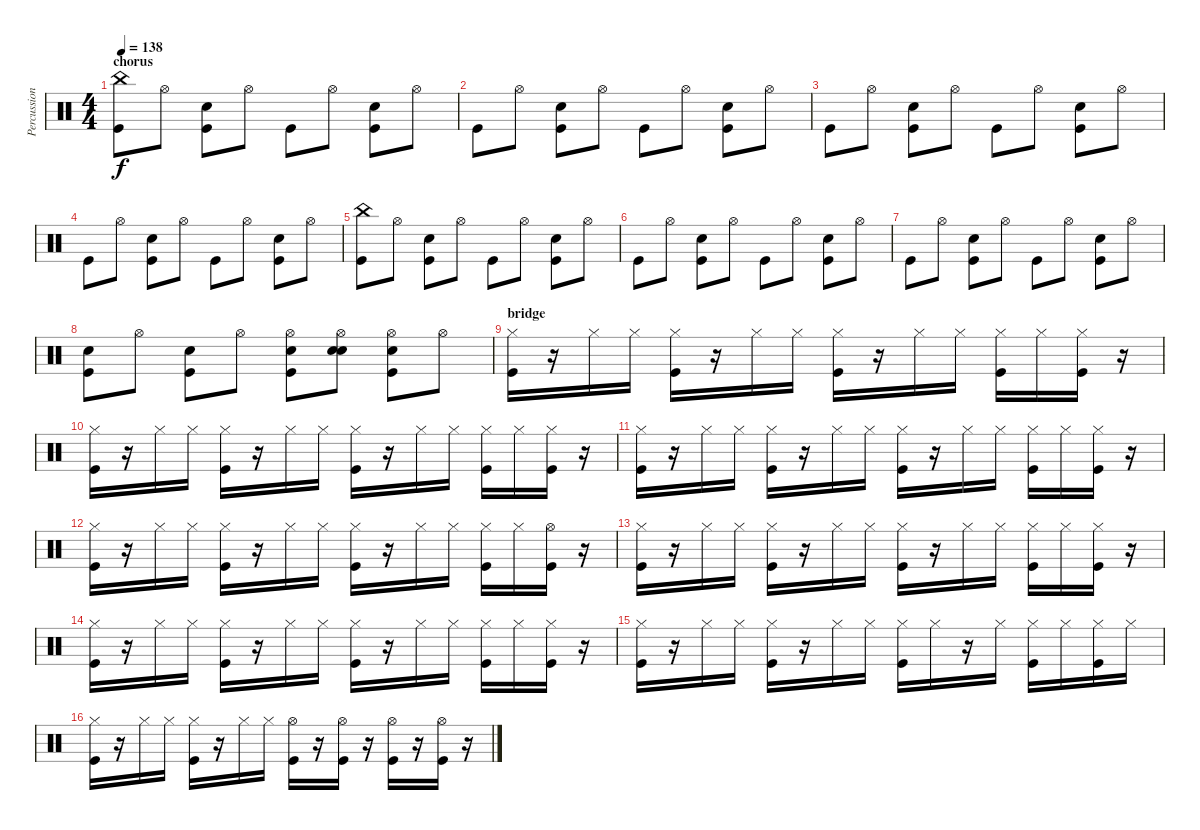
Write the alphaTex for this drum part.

\track ("Percussion" "Percussion") {instrument percussion}
\staff {score}
\articulation defaults
\ts (4 4)
\section ("" "chorus")
\tempo 138
\clef neutral
\ks c
("China (hit)" "Kick (hit)").8{dy f} "Hi-Hat (open)".8 ("Snare (hit) 2" "Kick (hit)").8 "Hi-Hat (open)".8 "Kick (hit)".8 "Hi-Hat (open)".8 ("Snare (hit) 2" "Kick (hit)").8 "Hi-Hat (open)".8 |
"Kick (hit)".8 "Hi-Hat (open)".8 ("Snare (hit) 2" "Kick (hit)").8 "Hi-Hat (open)".8 "Kick (hit)".8 "Hi-Hat (open)".8 ("Snare (hit) 2" "Kick (hit)").8 "Hi-Hat (open)".8 |
"Kick (hit)".8 "Hi-Hat (open)".8 ("Snare (hit) 2" "Kick (hit)").8 "Hi-Hat (open)".8 "Kick (hit)".8 "Hi-Hat (open)".8 ("Snare (hit) 2" "Kick (hit)").8 "Hi-Hat (open)".8 |
"Kick (hit)".8 "Hi-Hat (open)".8 ("Snare (hit) 2" "Kick (hit)").8 "Hi-Hat (open)".8 "Kick (hit)".8 "Hi-Hat (open)".8 ("Snare (hit) 2" "Kick (hit)").8 "Hi-Hat (open)".8 |
("China (hit)" "Kick (hit)").8 "Hi-Hat (open)".8 ("Snare (hit) 2" "Kick (hit)").8 "Hi-Hat (open)".8 "Kick (hit)".8 "Hi-Hat (open)".8 ("Snare (hit) 2" "Kick (hit)").8 "Hi-Hat (open)".8 |
"Kick (hit)".8 "Hi-Hat (open)".8 ("Snare (hit) 2" "Kick (hit)").8 "Hi-Hat (open)".8 "Kick (hit)".8 "Hi-Hat (open)".8 ("Snare (hit) 2" "Kick (hit)").8 "Hi-Hat (open)".8 |
"Kick (hit)".8 "Hi-Hat (open)".8 ("Snare (hit) 2" "Kick (hit)").8 "Hi-Hat (open)".8 "Kick (hit)".8 "Hi-Hat (open)".8 ("Snare (hit) 2" "Kick (hit)").8 "Hi-Hat (open)".8 |
("Snare (hit) 2" "Kick (hit)").8 "Hi-Hat (open)".8 ("Snare (hit) 2" "Kick (hit)").8 "Hi-Hat (open)".8 ("Hi-Hat (open)" "Snare (hit) 2" "Kick (hit)").8 ("Hi-Hat (open)" "Snare (hit) 2" "Snare (hit) 2").8 ("Hi-Hat (open)" "Snare (hit) 2" "Kick (hit)").8 "Hi-Hat (open)".8 |
\section ("" "bridge")
("Hi-Hat (closed)" "Kick (hit)").16 r.16 "Hi-Hat (closed)".16 "Hi-Hat (closed)".16 ("Hi-Hat (closed)" "Kick (hit)").16 r.16 "Hi-Hat (closed)".16 "Hi-Hat (closed)".16 ("Hi-Hat (closed)" "Kick (hit)").16 r.16 "Hi-Hat (closed)".16 "Hi-Hat (closed)".16 ("Hi-Hat (closed)" "Kick (hit)").16 "Hi-Hat (closed)".16 ("Hi-Hat (closed)" "Kick (hit)").16 r.16 |
("Hi-Hat (closed)" "Kick (hit)").16 r.16 "Hi-Hat (closed)".16 "Hi-Hat (closed)".16 ("Hi-Hat (closed)" "Kick (hit)").16 r.16 "Hi-Hat (closed)".16 "Hi-Hat (closed)".16 ("Hi-Hat (closed)" "Kick (hit)").16 r.16 "Hi-Hat (closed)".16 "Hi-Hat (closed)".16 ("Hi-Hat (closed)" "Kick (hit)").16 "Hi-Hat (closed)".16 ("Hi-Hat (closed)" "Kick (hit)").16 r.16 |
("Hi-Hat (closed)" "Kick (hit)").16 r.16 "Hi-Hat (closed)".16 "Hi-Hat (closed)".16 ("Hi-Hat (closed)" "Kick (hit)").16 r.16 "Hi-Hat (closed)".16 "Hi-Hat (closed)".16 ("Hi-Hat (closed)" "Kick (hit)").16 r.16 "Hi-Hat (closed)".16 "Hi-Hat (closed)".16 ("Hi-Hat (closed)" "Kick (hit)").16 "Hi-Hat (closed)".16 ("Hi-Hat (closed)" "Kick (hit)").16 r.16 |
("Hi-Hat (closed)" "Kick (hit)").16 r.16 "Hi-Hat (closed)".16 "Hi-Hat (closed)".16 ("Hi-Hat (closed)" "Kick (hit)").16 r.16 "Hi-Hat (closed)".16 "Hi-Hat (closed)".16 ("Hi-Hat (closed)" "Kick (hit)").16 r.16 "Hi-Hat (closed)".16 "Hi-Hat (closed)".16 ("Hi-Hat (closed)" "Kick (hit)").16 "Hi-Hat (closed)".16 ("Hi-Hat (open)" "Kick (hit)").16 r.16 |
("Hi-Hat (closed)" "Kick (hit)").16 r.16 "Hi-Hat (closed)".16 "Hi-Hat (closed)".16 ("Hi-Hat (closed)" "Kick (hit)").16 r.16 "Hi-Hat (closed)".16 "Hi-Hat (closed)".16 ("Hi-Hat (closed)" "Kick (hit)").16 r.16 "Hi-Hat (closed)".16 "Hi-Hat (closed)".16 ("Hi-Hat (closed)" "Kick (hit)").16 "Hi-Hat (closed)".16 ("Hi-Hat (closed)" "Kick (hit)").16 r.16 |
("Hi-Hat (closed)" "Kick (hit)").16 r.16 "Hi-Hat (closed)".16 "Hi-Hat (closed)".16 ("Hi-Hat (closed)" "Kick (hit)").16 r.16 "Hi-Hat (closed)".16 "Hi-Hat (closed)".16 ("Hi-Hat (closed)" "Kick (hit)").16 r.16 "Hi-Hat (closed)".16 "Hi-Hat (closed)".16 ("Hi-Hat (closed)" "Kick (hit)").16 "Hi-Hat (closed)".16 ("Hi-Hat (closed)" "Kick (hit)").16 r.16 |
("Hi-Hat (closed)" "Kick (hit)").16 r.16 "Hi-Hat (closed)".16 "Hi-Hat (closed)".16 ("Hi-Hat (closed)" "Kick (hit)").16 r.16 "Hi-Hat (closed)".16 "Hi-Hat (closed)".16 ("Hi-Hat (closed)" "Kick (hit)").16 "Hi-Hat (closed)".16 r.16 "Hi-Hat (closed)".16 ("Hi-Hat (closed)" "Kick (hit)").16 "Hi-Hat (closed)".16 ("Hi-Hat (closed)" "Kick (hit)").16 "Hi-Hat (closed)".16 |
("Hi-Hat (closed)" "Kick (hit)").16 r.16 "Hi-Hat (closed)".16 "Hi-Hat (closed)".16 ("Hi-Hat (closed)" "Kick (hit)").16 r.16 "Hi-Hat (closed)".16 "Hi-Hat (closed)".16 ("Hi-Hat (open)" "Kick (hit)").16 r.16 ("Hi-Hat (open)" "Kick (hit)").16 r.16 ("Hi-Hat (open)" "Kick (hit)").16 r.16 ("Hi-Hat (open)" "Kick (hit)").16 r.16
